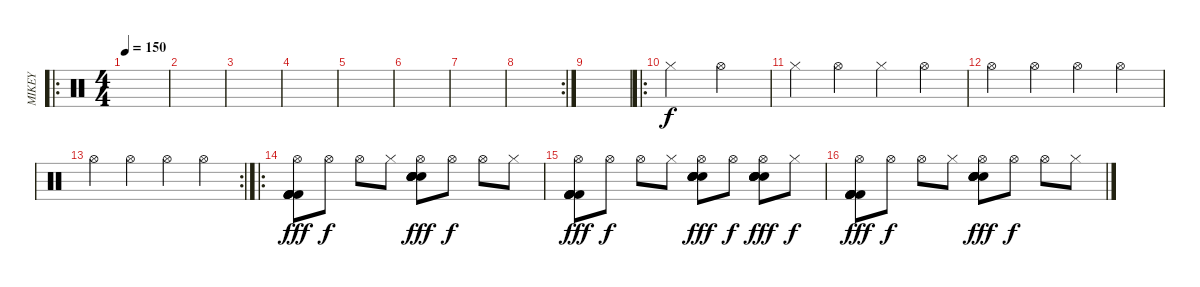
\track ("MIKEY" "MIKEY") {instrument percussion}
\staff {score}
\articulation defaults
\ro
\ts (4 4)
\tempo 150
\clef neutral
\ks c
|
|
|
|
|
|
|
\rc 2
|
|
\ro "Hi-Hat (closed)".2 "Hi-Hat (open)".2
|
"Hi-Hat (closed)".4 "Hi-Hat (open)".4 "Hi-Hat (closed)".4 "Hi-Hat (open)".4 |
"Hi-Hat (open)".4 "Hi-Hat (open)".4 "Hi-Hat (open)".4 "Hi-Hat (open)".4 |
\rc 2 "Hi-Hat (open)".4 "Hi-Hat (open)".4 "Hi-Hat (open)".4 "Hi-Hat (open)".4
|
\ro
("Kick (hit) 2" "Kick (hit) 2" "Kick (hit) 2" "Kick (hit) 2" "Kick (hit) 2" "Hi-Hat (open)").8{dy fff} "Hi-Hat (open)".8{dy f} "Hi-Hat (open)".8 "Hi-Hat (closed)".8 ("Electric Snare (hit)" "Electric Snare (hit)" "Electric Snare (hit)" "Electric Snare (hit)" "Electric Snare (hit)" "Hi-Hat (open)").8{dy fff} "Hi-Hat (open)".8{dy f} "Hi-Hat (open)".8 "Hi-Hat (closed)".8 |
("Kick (hit) 2" "Kick (hit) 2" "Kick (hit) 2" "Kick (hit) 2" "Kick (hit) 2" "Hi-Hat (open)").8{dy fff} "Hi-Hat (open)".8{dy f} "Hi-Hat (open)".8 "Hi-Hat (closed)".8 ("Electric Snare (hit)" "Electric Snare (hit)" "Electric Snare (hit)" "Electric Snare (hit)" "Electric Snare (hit)" "Hi-Hat (open)").8{dy fff} "Hi-Hat (open)".8{dy f} ("Electric Snare (hit)" "Electric Snare (hit)" "Electric Snare (hit)" "Electric Snare (hit)" "Electric Snare (hit)" "Hi-Hat (open)").8{dy fff} "Hi-Hat (closed)".8{dy f} |
("Kick (hit) 2" "Kick (hit) 2" "Kick (hit) 2" "Kick (hit) 2" "Kick (hit) 2" "Hi-Hat (open)").8{dy fff} "Hi-Hat (open)".8{dy f} "Hi-Hat (open)".8 "Hi-Hat (closed)".8 ("Electric Snare (hit)" "Electric Snare (hit)" "Electric Snare (hit)" "Electric Snare (hit)" "Electric Snare (hit)" "Hi-Hat (open)").8{dy fff} "Hi-Hat (open)".8{dy f} "Hi-Hat (open)".8 "Hi-Hat (closed)".8
